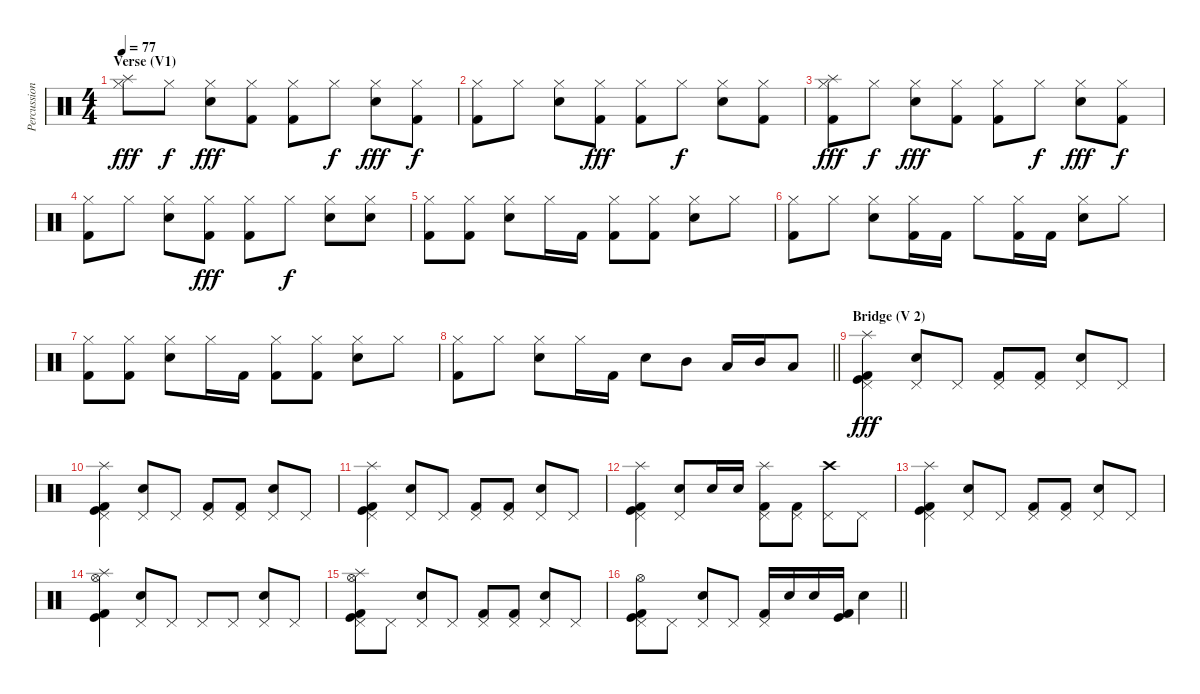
\track ("Percussion" "Percussion") {instrument percussion}
\staff {score}
\articulation defaults
\ts (4 4)
\section ("" "Verse (V1)")
\tempo 77
\clef neutral
\ks c
("Splash (hit)" "Hi-Hat (closed)").8{dy fff} "Hi-Hat (closed)".8{dy f} ("Snare (hit) 2" "Hi-Hat (closed)").8{dy fff} ("Hi-Hat (closed)" "Kick (hit) 2").8 ("Hi-Hat (closed)" "Kick (hit) 2").8 "Hi-Hat (closed)".8{dy f} ("Snare (hit) 2" "Hi-Hat (closed)").8{dy fff} ("Hi-Hat (closed)" "Kick (hit) 2").8{dy f} |
("Hi-Hat (closed)" "Kick (hit) 2").8 "Hi-Hat (closed)".8 ("Snare (hit) 2" "Hi-Hat (closed)").8 ("Hi-Hat (closed)" "Kick (hit) 2").8{dy fff} ("Hi-Hat (closed)" "Kick (hit) 2").8 "Hi-Hat (closed)".8{dy f} ("Snare (hit) 2" "Hi-Hat (closed)").8 ("Hi-Hat (closed)" "Kick (hit) 2").8 |
("Splash (hit)" "Hi-Hat (closed)" "Kick (hit) 2").8{dy fff} "Hi-Hat (closed)".8{dy f} ("Snare (hit) 2" "Hi-Hat (closed)").8{dy fff} ("Hi-Hat (closed)" "Kick (hit) 2").8 ("Hi-Hat (closed)" "Kick (hit) 2").8 "Hi-Hat (closed)".8{dy f} ("Snare (hit) 2" "Hi-Hat (closed)").8{dy fff} ("Hi-Hat (closed)" "Kick (hit) 2").8{dy f} |
("Hi-Hat (closed)" "Kick (hit) 2").8 "Hi-Hat (closed)".8 ("Snare (hit) 2" "Hi-Hat (closed)").8 ("Hi-Hat (closed)" "Kick (hit) 2").8{dy fff} ("Hi-Hat (closed)" "Kick (hit) 2").8 "Hi-Hat (closed)".8{dy f} ("Snare (hit) 2" "Hi-Hat (closed)").8 ("Hi-Hat (closed)" "Snare (hit)").8 |
("Hi-Hat (closed)" "Kick (hit) 2").8 ("Hi-Hat (closed)" "Kick (hit) 2").8 ("Snare (hit) 2" "Hi-Hat (closed)").8 "Hi-Hat (closed)".16 "Kick (hit) 2".16 ("Hi-Hat (closed)" "Kick (hit) 2").8 ("Hi-Hat (closed)" "Kick (hit) 2").8 ("Snare (hit) 2" "Hi-Hat (closed)").8 "Hi-Hat (closed)".8 |
("Hi-Hat (closed)" "Kick (hit) 2").8 "Hi-Hat (closed)".8 ("Snare (hit) 2" "Hi-Hat (closed)").8 ("Hi-Hat (closed)" "Kick (hit) 2").16 "Kick (hit) 2".16 "Hi-Hat (closed)".8 ("Hi-Hat (closed)" "Kick (hit) 2").16 "Kick (hit) 2".16 ("Snare (hit) 2" "Hi-Hat (closed)").8 "Hi-Hat (closed)".8 |
("Hi-Hat (closed)" "Kick (hit) 2").8 ("Hi-Hat (closed)" "Kick (hit) 2").8 ("Snare (hit) 2" "Hi-Hat (closed)").8 "Hi-Hat (closed)".16 "Kick (hit) 2".16 ("Hi-Hat (closed)" "Kick (hit) 2").8 ("Hi-Hat (closed)" "Kick (hit) 2").8 ("Snare (hit) 2" "Hi-Hat (closed)").8 "Hi-Hat (closed)".8 |
\barLineRight lightlight
("Hi-Hat (closed)" "Kick (hit) 2").8 "Hi-Hat (closed)".8 ("Snare (hit) 2" "Hi-Hat (closed)").8 "Hi-Hat (closed)".16 "Kick (hit) 2".16 "Snare (hit) 2".8 "Mid Tom (hit)".8 "Low Tom (hit)".16 "Mid Tom (hit)".16 "Low Tom (hit)".8 |
\section ("" "Bridge (V 2)")
("Splash (hit)" "Pedal Hi-Hat (hit)" "Kick (hit)" "Kick (hit) 2").4{dy fff} ("Snare (hit) 2" "Pedal Hi-Hat (hit)").8 "Pedal Hi-Hat (hit)".8 ("Pedal Hi-Hat (hit)" "Kick (hit) 2").8 ("Pedal Hi-Hat (hit)" "Kick (hit) 2").8 ("Snare (hit) 2" "Pedal Hi-Hat (hit)").8 "Pedal Hi-Hat (hit)".8 |
("Splash (hit)" "Pedal Hi-Hat (hit)" "Kick (hit)" "Kick (hit) 2").4 ("Snare (hit) 2" "Pedal Hi-Hat (hit)").8 "Pedal Hi-Hat (hit)".8 ("Pedal Hi-Hat (hit)" "Kick (hit) 2").8 ("Pedal Hi-Hat (hit)" "Kick (hit) 2").8 ("Snare (hit) 2" "Pedal Hi-Hat (hit)").8 "Pedal Hi-Hat (hit)".8 |
("Splash (hit)" "Pedal Hi-Hat (hit)" "Kick (hit)" "Kick (hit) 2").4 ("Snare (hit) 2" "Pedal Hi-Hat (hit)").8 "Pedal Hi-Hat (hit)".8 ("Pedal Hi-Hat (hit)" "Kick (hit) 2").8 ("Pedal Hi-Hat (hit)" "Kick (hit) 2").8 ("Snare (hit) 2" "Pedal Hi-Hat (hit)").8 "Pedal Hi-Hat (hit)".8 |
("Splash (hit)" "Pedal Hi-Hat (hit)" "Kick (hit)" "Kick (hit) 2").4 ("Snare (hit) 2" "Pedal Hi-Hat (hit)").8 "Snare (hit) 2".16 "Snare (hit) 2".16 ("Splash (hit)" "Pedal Hi-Hat (hit)" "Kick (hit) 2").8 ("Pedal Hi-Hat (hit)" "Kick (hit) 2").8 ("Crash high (hit)" "Pedal Hi-Hat (hit)").8 "Pedal Hi-Hat (hit)".8 |
("Splash (hit)" "Pedal Hi-Hat (hit)" "Kick (hit)" "Kick (hit) 2").4 ("Snare (hit) 2" "Pedal Hi-Hat (hit)").8 "Pedal Hi-Hat (hit)".8 ("Pedal Hi-Hat (hit)" "Kick (hit) 2").8 ("Pedal Hi-Hat (hit)" "Kick (hit) 2").8 ("Snare (hit) 2" "Pedal Hi-Hat (hit)").8 "Pedal Hi-Hat (hit)".8 |
("Splash (hit)" "Hi-Hat (open)" "Kick (hit)" "Kick (hit) 2").4 ("Snare (hit) 2" "Pedal Hi-Hat (hit)").8 "Pedal Hi-Hat (hit)".8 "Pedal Hi-Hat (hit)".8 "Pedal Hi-Hat (hit)".8 ("Snare (hit) 2" "Pedal Hi-Hat (hit)").8 "Pedal Hi-Hat (hit)".8 |
("Splash (hit)" "Pedal Hi-Hat (hit)" "Hi-Hat (open)" "Kick (hit)" "Kick (hit) 2").8 "Pedal Hi-Hat (hit)".8 ("Snare (hit) 2" "Pedal Hi-Hat (hit)").8 "Pedal Hi-Hat (hit)".8 ("Pedal Hi-Hat (hit)" "Kick (hit) 2").8 ("Pedal Hi-Hat (hit)" "Kick (hit) 2").8 ("Snare (hit) 2" "Pedal Hi-Hat (hit)").8 "Pedal Hi-Hat (hit)".8 |
\barLineRight lightlight
("Pedal Hi-Hat (hit)" "Hi-Hat (open)" "Kick (hit)" "Kick (hit) 2").8 "Pedal Hi-Hat (hit)".8 ("Snare (hit) 2" "Pedal Hi-Hat (hit)").8 "Pedal Hi-Hat (hit)".8 ("Pedal Hi-Hat (hit)" "Kick (hit) 2").16 "Snare (hit) 2".16 "Snare (hit) 2".16 ("Kick (hit)" "Kick (hit) 2").16 "Snare (hit) 2".4
